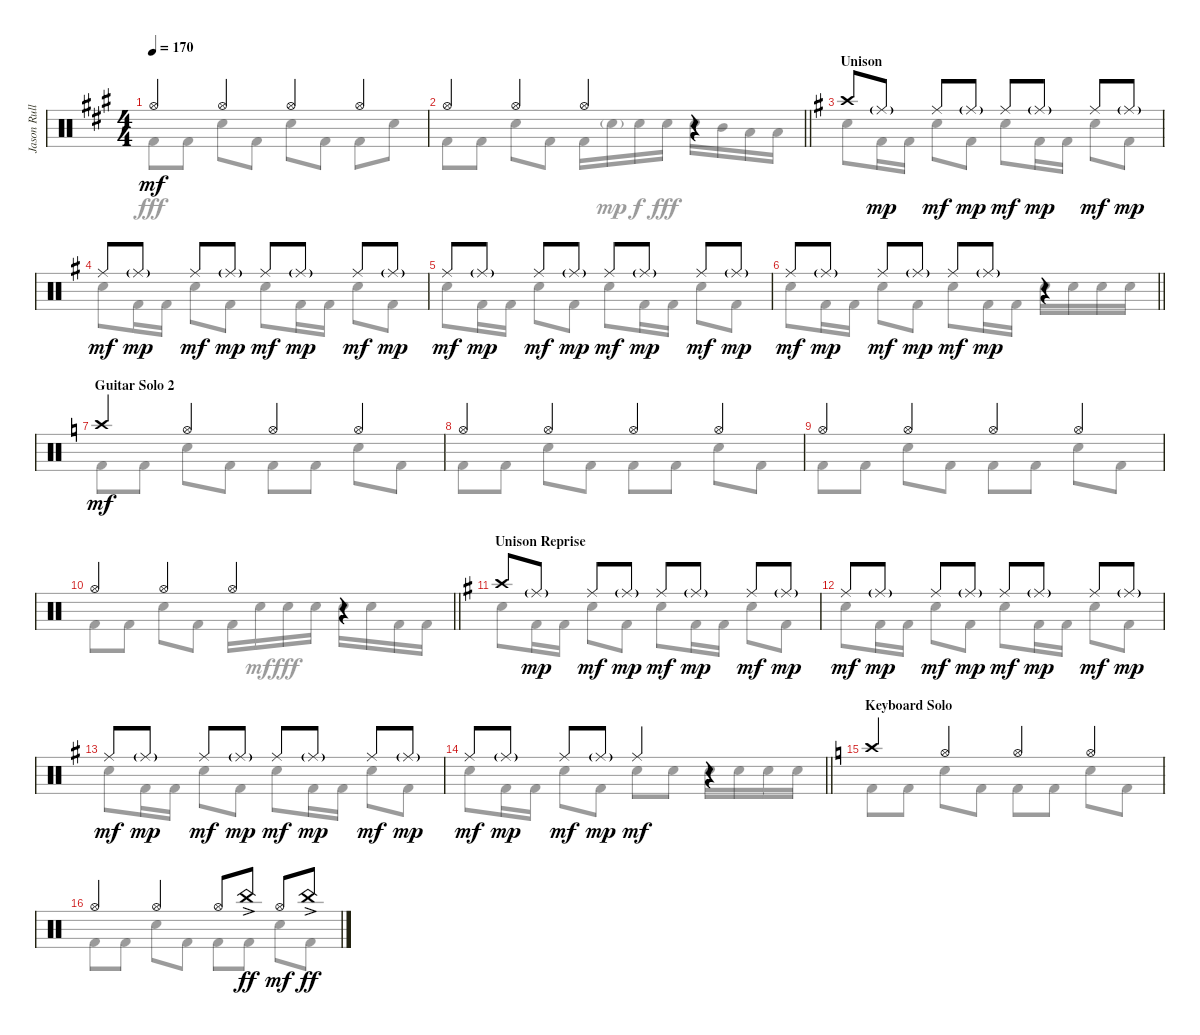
\track ("Jason Rullo Drums" "Jason Rull") {instrument percussion}
\staff {score}
\articulation defaults
\voice
\ts (4 4)
\tempo 170
\clef neutral
\ks f#minor "Hi-Hat (open)".4{dy mf} "Hi-Hat (open)".4 "Hi-Hat (open)".4 "Hi-Hat (open)".4
|
\barLineRight lightlight "Hi-Hat (open)".4 "Hi-Hat (open)".4 "Hi-Hat (open)".4
r.4 |
\section ("" "Unison")
\ks eminor "Crash high (hit)".8 "Ride (middle)"{g}.8{dy mp} "Ride (middle)".8{dy mf} "Ride (middle)"{g}.8{dy mp} "Ride (middle)".8{dy mf} "Ride (middle)"{g}.8{dy mp} "Ride (middle)".8{dy mf} "Ride (middle)"{g}.8{dy mp}
|
"Ride (middle)".8{dy mf} "Ride (middle)"{g}.8{dy mp} "Ride (middle)".8{dy mf} "Ride (middle)"{g}.8{dy mp} "Ride (middle)".8{dy mf} "Ride (middle)"{g}.8{dy mp} "Ride (middle)".8{dy mf} "Ride (middle)"{g}.8{dy mp} |
"Ride (middle)".8{dy mf} "Ride (middle)"{g}.8{dy mp} "Ride (middle)".8{dy mf} "Ride (middle)"{g}.8{dy mp} "Ride (middle)".8{dy mf} "Ride (middle)"{g}.8{dy mp} "Ride (middle)".8{dy mf} "Ride (middle)"{g}.8{dy mp} |
\barLineRight lightlight "Ride (middle)".8{dy mf} "Ride (middle)"{g}.8{dy mp} "Ride (middle)".8{dy mf} "Ride (middle)"{g}.8{dy mp} "Ride (middle)".8{dy mf} "Ride (middle)"{g}.8{dy mp}
r.4 |
\section ("" "Guitar Solo 2")
\ks aminor "Crash high (hit)".4{dy mf} "Hi-Hat (open)".4 "Hi-Hat (open)".4 "Hi-Hat (open)".4
|
"Hi-Hat (open)".4 "Hi-Hat (open)".4 "Hi-Hat (open)".4 "Hi-Hat (open)".4 |
"Hi-Hat (open)".4 "Hi-Hat (open)".4 "Hi-Hat (open)".4 "Hi-Hat (open)".4 |
\barLineRight lightlight "Hi-Hat (open)".4 "Hi-Hat (open)".4 "Hi-Hat (open)".4
r.4 |
\section ("" "Unison Reprise")
\ks eminor "Crash high (hit)".8 "Ride (middle)"{g}.8{dy mp} "Ride (middle)".8{dy mf} "Ride (middle)"{g}.8{dy mp} "Ride (middle)".8{dy mf} "Ride (middle)"{g}.8{dy mp} "Ride (middle)".8{dy mf} "Ride (middle)"{g}.8{dy mp}
|
"Ride (middle)".8{dy mf} "Ride (middle)"{g}.8{dy mp} "Ride (middle)".8{dy mf} "Ride (middle)"{g}.8{dy mp} "Ride (middle)".8{dy mf} "Ride (middle)"{g}.8{dy mp} "Ride (middle)".8{dy mf} "Ride (middle)"{g}.8{dy mp} |
"Ride (middle)".8{dy mf} "Ride (middle)"{g}.8{dy mp} "Ride (middle)".8{dy mf} "Ride (middle)"{g}.8{dy mp} "Ride (middle)".8{dy mf} "Ride (middle)"{g}.8{dy mp} "Ride (middle)".8{dy mf} "Ride (middle)"{g}.8{dy mp} |
\barLineRight lightlight "Ride (middle)".8{dy mf} "Ride (middle)"{g}.8{dy mp} "Ride (middle)".8{dy mf} "Ride (middle)"{g}.8{dy mp} "Ride (middle)".4{dy mf}
r.4 |
\section ("" "Keyboard Solo")
\ks aminor "Crash high (hit)".4 "Hi-Hat (open)".4 "Hi-Hat (open)".4 "Hi-Hat (open)".4
|
"Hi-Hat (open)".4 "Hi-Hat (open)".4 "Hi-Hat (open)".8 "China (hit)"{ac}.8{dy ff} "Hi-Hat (open)".8{dy mf} "China (hit)"{ac}.8{dy ff}
\voice
\clef neutral
\ottava regular
\simile none
\ks f#minor "Kick (hit) 2".8{dy fff} "Kick (hit) 2".8 "Electric Snare (hit)".8 "Kick (hit) 2".8 "Electric Snare (hit)".8 "Kick (hit) 2".8 "Kick (hit) 2".8 "Electric Snare (hit)".8
|
\barLineRight lightlight "Kick (hit) 2".8 "Kick (hit) 2".8 "Electric Snare (hit)".8 "Kick (hit) 2".8 "Kick (hit) 2".16 "Electric Snare (hit)"{g}.16{dy mp} "Electric Snare (hit)".16{dy f} "Electric Snare (hit)".16{dy fff} "Electric Snare (hit)".16 "Mid Tom (hit)".16 "Low Tom (hit)".16 "Low Tom (hit)".16
|
\ks eminor "Electric Snare (hit)".8 "Kick (hit) 2".16 "Kick (hit) 2".16 "Electric Snare (hit)".8 "Kick (hit) 2".8 "Electric Snare (hit)".8 "Kick (hit) 2".16 "Kick (hit) 2".16 "Electric Snare (hit)".8 "Kick (hit) 2".8
|
"Electric Snare (hit)".8 "Kick (hit) 2".16 "Kick (hit) 2".16 "Electric Snare (hit)".8 "Kick (hit) 2".8 "Electric Snare (hit)".8 "Kick (hit) 2".16 "Kick (hit) 2".16 "Electric Snare (hit)".8 "Kick (hit) 2".8 |
"Electric Snare (hit)".8 "Kick (hit) 2".16 "Kick (hit) 2".16 "Electric Snare (hit)".8 "Kick (hit) 2".8 "Electric Snare (hit)".8 "Kick (hit) 2".16 "Kick (hit) 2".16 "Electric Snare (hit)".8 "Kick (hit) 2".8 |
\barLineRight lightlight "Electric Snare (hit)".8 "Kick (hit) 2".16 "Kick (hit) 2".16 "Electric Snare (hit)".8 "Kick (hit) 2".8 "Electric Snare (hit)".8 "Kick (hit) 2".16 "Kick (hit) 2".16 "Electric Snare (hit)".16 "Electric Snare (hit)".16 "Electric Snare (hit)".16 "Electric Snare (hit)".16
|
\ks aminor "Kick (hit) 2".8 "Kick (hit) 2".8 "Electric Snare (hit)".8 "Kick (hit) 2".8 "Kick (hit) 2".8 "Kick (hit) 2".8 "Electric Snare (hit)".8 "Kick (hit) 2".8
|
"Kick (hit) 2".8 "Kick (hit) 2".8 "Electric Snare (hit)".8 "Kick (hit) 2".8 "Kick (hit) 2".8 "Kick (hit) 2".8 "Electric Snare (hit)".8 "Kick (hit) 2".8 |
"Kick (hit) 2".8 "Kick (hit) 2".8 "Electric Snare (hit)".8 "Kick (hit) 2".8 "Kick (hit) 2".8 "Kick (hit) 2".8 "Electric Snare (hit)".8 "Kick (hit) 2".8 |
\barLineRight lightlight "Kick (hit) 2".8 "Kick (hit) 2".8 "Electric Snare (hit)".8 "Kick (hit) 2".8 "Kick (hit) 2".16 "Electric Snare (hit)".16{dy mf} "Electric Snare (hit)".16{dy fff} "Electric Snare (hit)".16 "Electric Snare (hit)".16 "Electric Snare (hit)".16 "Kick (hit) 2".16 "Kick (hit) 2".16
|
\ks eminor "Electric Snare (hit)".8 "Kick (hit) 2".16 "Kick (hit) 2".16 "Electric Snare (hit)".8 "Kick (hit) 2".8 "Electric Snare (hit)".8 "Kick (hit) 2".16 "Kick (hit) 2".16 "Electric Snare (hit)".8 "Kick (hit) 2".8
|
"Electric Snare (hit)".8 "Kick (hit) 2".16 "Kick (hit) 2".16 "Electric Snare (hit)".8 "Kick (hit) 2".8 "Electric Snare (hit)".8 "Kick (hit) 2".16 "Kick (hit) 2".16 "Electric Snare (hit)".8 "Kick (hit) 2".8 |
"Electric Snare (hit)".8 "Kick (hit) 2".16 "Kick (hit) 2".16 "Electric Snare (hit)".8 "Kick (hit) 2".8 "Electric Snare (hit)".8 "Kick (hit) 2".16 "Kick (hit) 2".16 "Electric Snare (hit)".8 "Kick (hit) 2".8 |
\barLineRight lightlight "Electric Snare (hit)".8 "Kick (hit) 2".16 "Kick (hit) 2".16 "Electric Snare (hit)".8 "Kick (hit) 2".8 "Electric Snare (hit)".8 "Electric Snare (hit)".8 "Electric Snare (hit)".16 "Electric Snare (hit)".16 "Electric Snare (hit)".16 "Electric Snare (hit)".16
|
\ks aminor "Kick (hit) 2".8 "Kick (hit) 2".8 "Electric Snare (hit)".8 "Kick (hit) 2".8 "Kick (hit) 2".8 "Kick (hit) 2".8 "Electric Snare (hit)".8 "Kick (hit) 2".8
|
"Kick (hit) 2".8 "Kick (hit) 2".8 "Electric Snare (hit)".8 "Kick (hit) 2".8 "Kick (hit) 2".8 "Kick (hit) 2".8 "Electric Snare (hit)".8 "Kick (hit) 2".8
